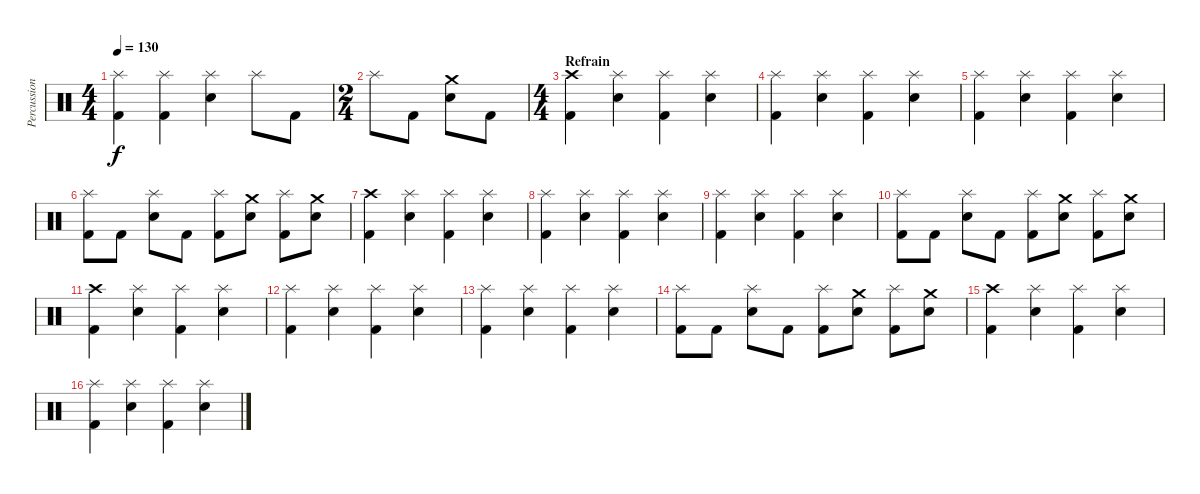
\track ("Percussions" "Percussion") {instrument percussion}
\staff {score}
\articulation defaults
\ts (4 4)
\tempo 130
\clef neutral
\ks c
("Splash (hit)" "Kick (hit) 2").4{dy f} ("Splash (hit)" "Kick (hit) 2").4 ("Splash (hit)" "Electric Snare (hit)").4 "Splash (hit)".8 "Kick (hit) 2".8 |
\ts (2 4)
"Splash (hit)".8 "Kick (hit) 2".8 ("Crash medium (hit)" "Electric Snare (hit)").8 "Kick (hit) 2".8 |
\ts (4 4)
\section ("" "Refrain")
("Crash high (hit)" "Kick (hit) 2").4 ("Splash (hit)" "Electric Snare (hit)").4 ("Splash (hit)" "Kick (hit) 2").4 ("Splash (hit)" "Electric Snare (hit)").4 |
("Splash (hit)" "Kick (hit) 2").4 ("Splash (hit)" "Electric Snare (hit)").4 ("Splash (hit)" "Kick (hit) 2").4 ("Splash (hit)" "Electric Snare (hit)").4 |
("Splash (hit)" "Kick (hit) 2").4 ("Splash (hit)" "Electric Snare (hit)").4 ("Splash (hit)" "Kick (hit) 2").4 ("Splash (hit)" "Electric Snare (hit)").4 |
("Splash (hit)" "Kick (hit) 2").8 "Kick (hit) 2".8 ("Splash (hit)" "Electric Snare (hit)").8 "Kick (hit) 2".8 ("Splash (hit)" "Kick (hit) 2").8 ("Crash medium (hit)" "Electric Snare (hit)").8 ("Splash (hit)" "Kick (hit) 2").8 ("Crash medium (hit)" "Electric Snare (hit)").8 |
("Crash high (hit)" "Kick (hit) 2").4 ("Splash (hit)" "Electric Snare (hit)").4 ("Splash (hit)" "Kick (hit) 2").4 ("Splash (hit)" "Electric Snare (hit)").4 |
("Splash (hit)" "Kick (hit) 2").4 ("Splash (hit)" "Electric Snare (hit)").4 ("Splash (hit)" "Kick (hit) 2").4 ("Splash (hit)" "Electric Snare (hit)").4 |
("Splash (hit)" "Kick (hit) 2").4 ("Splash (hit)" "Electric Snare (hit)").4 ("Splash (hit)" "Kick (hit) 2").4 ("Splash (hit)" "Electric Snare (hit)").4 |
("Splash (hit)" "Kick (hit) 2").8 "Kick (hit) 2".8 ("Splash (hit)" "Electric Snare (hit)").8 "Kick (hit) 2".8 ("Splash (hit)" "Kick (hit) 2").8 ("Crash medium (hit)" "Electric Snare (hit)").8 ("Splash (hit)" "Kick (hit) 2").8 ("Crash medium (hit)" "Electric Snare (hit)").8 |
("Crash high (hit)" "Kick (hit) 2").4 ("Splash (hit)" "Electric Snare (hit)").4 ("Splash (hit)" "Kick (hit) 2").4 ("Splash (hit)" "Electric Snare (hit)").4 |
("Splash (hit)" "Kick (hit) 2").4 ("Splash (hit)" "Electric Snare (hit)").4 ("Splash (hit)" "Kick (hit) 2").4 ("Splash (hit)" "Electric Snare (hit)").4 |
("Splash (hit)" "Kick (hit) 2").4 ("Splash (hit)" "Electric Snare (hit)").4 ("Splash (hit)" "Kick (hit) 2").4 ("Splash (hit)" "Electric Snare (hit)").4 |
("Splash (hit)" "Kick (hit) 2").8 "Kick (hit) 2".8 ("Splash (hit)" "Electric Snare (hit)").8 "Kick (hit) 2".8 ("Splash (hit)" "Kick (hit) 2").8 ("Crash medium (hit)" "Electric Snare (hit)").8 ("Splash (hit)" "Kick (hit) 2").8 ("Crash medium (hit)" "Electric Snare (hit)").8 |
("Crash high (hit)" "Kick (hit) 2").4 ("Splash (hit)" "Electric Snare (hit)").4 ("Splash (hit)" "Kick (hit) 2").4 ("Splash (hit)" "Electric Snare (hit)").4 |
("Splash (hit)" "Kick (hit) 2").4 ("Splash (hit)" "Electric Snare (hit)").4 ("Splash (hit)" "Kick (hit) 2").4 ("Splash (hit)" "Electric Snare (hit)").4
